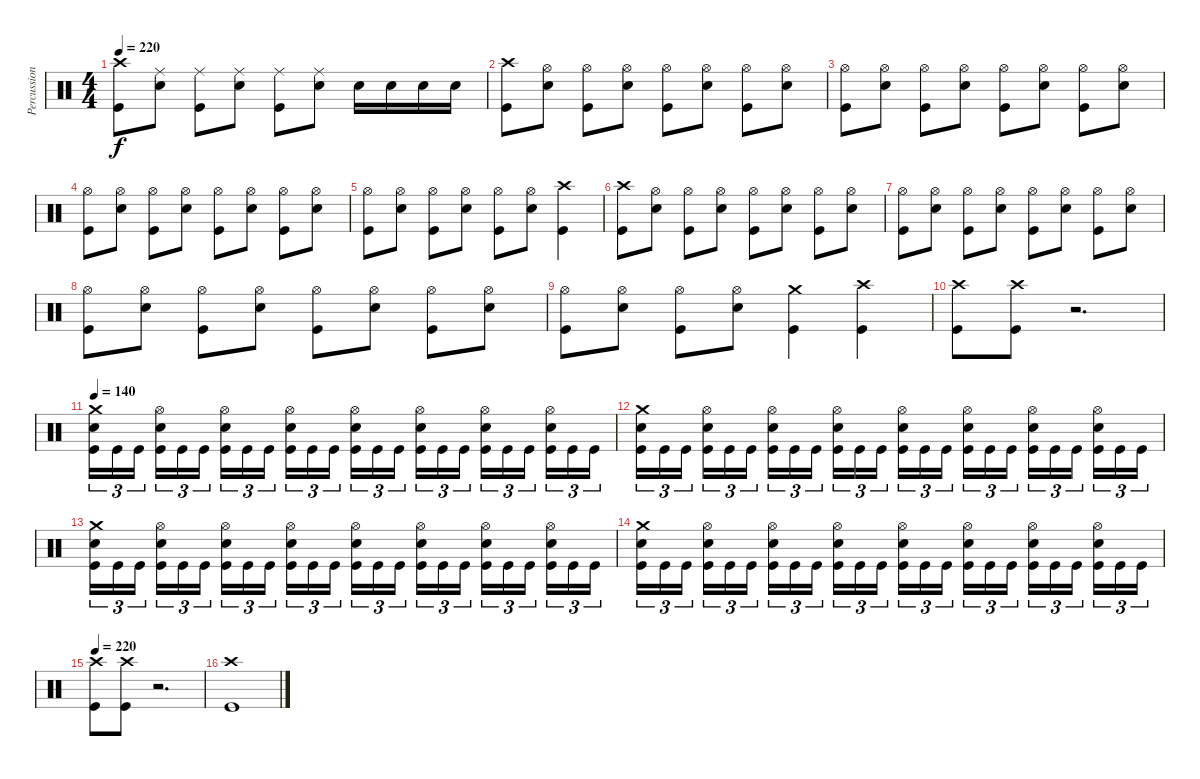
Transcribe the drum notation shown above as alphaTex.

\track ("Percussion" "Percussion") {instrument percussion}
\staff {score}
\articulation defaults
\ts (4 4)
\tempo 220
\clef neutral
\ks c
("Crash high (hit)" "Kick (hit)").8{dy f} ("Ride (middle)" "Snare (hit) 2").8 ("Ride (middle)" "Kick (hit)").8 ("Ride (middle)" "Snare (hit) 2").8 ("Ride (middle)" "Kick (hit)").8 ("Ride (middle)" "Snare (hit) 2").8 "Snare (hit) 2".16 "Snare (hit) 2".16 "Snare (hit) 2".16 "Snare (hit) 2".16 |
("Crash high (hit)" "Kick (hit)").8 ("Hi-Hat (open)" "Snare (hit) 2").8 ("Hi-Hat (open)" "Kick (hit)").8 ("Hi-Hat (open)" "Snare (hit) 2").8 ("Hi-Hat (open)" "Kick (hit)").8 ("Hi-Hat (open)" "Snare (hit) 2").8 ("Hi-Hat (open)" "Kick (hit)").8 ("Hi-Hat (open)" "Snare (hit) 2").8 |
("Hi-Hat (open)" "Kick (hit)").8 ("Hi-Hat (open)" "Snare (hit) 2").8 ("Hi-Hat (open)" "Kick (hit)").8 ("Hi-Hat (open)" "Snare (hit) 2").8 ("Hi-Hat (open)" "Kick (hit)").8 ("Hi-Hat (open)" "Snare (hit) 2").8 ("Hi-Hat (open)" "Kick (hit)").8 ("Hi-Hat (open)" "Snare (hit) 2").8 |
("Hi-Hat (open)" "Kick (hit)").8 ("Hi-Hat (open)" "Snare (hit) 2").8 ("Hi-Hat (open)" "Kick (hit)").8 ("Hi-Hat (open)" "Snare (hit) 2").8 ("Hi-Hat (open)" "Kick (hit)").8 ("Hi-Hat (open)" "Snare (hit) 2").8 ("Hi-Hat (open)" "Kick (hit)").8 ("Hi-Hat (open)" "Snare (hit) 2").8 |
("Hi-Hat (open)" "Kick (hit)").8 ("Hi-Hat (open)" "Snare (hit) 2").8 ("Hi-Hat (open)" "Kick (hit)").8 ("Hi-Hat (open)" "Snare (hit) 2").8 ("Hi-Hat (open)" "Kick (hit)").8 ("Hi-Hat (open)" "Snare (hit) 2").8 ("Crash high (hit)" "Kick (hit)").4 |
("Crash high (hit)" "Kick (hit)").8 ("Hi-Hat (open)" "Snare (hit) 2").8 ("Hi-Hat (open)" "Kick (hit)").8 ("Hi-Hat (open)" "Snare (hit) 2").8 ("Hi-Hat (open)" "Kick (hit)").8 ("Hi-Hat (open)" "Snare (hit) 2").8 ("Hi-Hat (open)" "Kick (hit)").8 ("Hi-Hat (open)" "Snare (hit) 2").8 |
("Hi-Hat (open)" "Kick (hit)").8 ("Hi-Hat (open)" "Snare (hit) 2").8 ("Hi-Hat (open)" "Kick (hit)").8 ("Hi-Hat (open)" "Snare (hit) 2").8 ("Hi-Hat (open)" "Kick (hit)").8 ("Hi-Hat (open)" "Snare (hit) 2").8 ("Hi-Hat (open)" "Kick (hit)").8 ("Hi-Hat (open)" "Snare (hit) 2").8 |
("Hi-Hat (open)" "Kick (hit)").8 ("Hi-Hat (open)" "Snare (hit) 2").8 ("Hi-Hat (open)" "Kick (hit)").8 ("Hi-Hat (open)" "Snare (hit) 2").8 ("Hi-Hat (open)" "Kick (hit)").8 ("Hi-Hat (open)" "Snare (hit) 2").8 ("Hi-Hat (open)" "Kick (hit)").8 ("Hi-Hat (open)" "Snare (hit) 2").8 |
("Hi-Hat (open)" "Kick (hit)").8 ("Hi-Hat (open)" "Snare (hit) 2").8 ("Hi-Hat (open)" "Kick (hit)").8 ("Hi-Hat (open)" "Snare (hit) 2").8 ("Crash medium (hit)" "Kick (hit)").4 ("Crash high (hit)" "Kick (hit)").4 |
("Crash high (hit)" "Kick (hit)").8 ("Crash high (hit)" "Kick (hit)").8 r.2{d} |
\tempo 140
("Crash medium (hit)" "Snare (hit) 2" "Kick (hit)").16{tu (3 2)} "Kick (hit)".16{tu (3 2)} "Kick (hit)".16{tu (3 2)} ("Hi-Hat (open)" "Snare (hit) 2" "Kick (hit)").16{tu (3 2)} "Kick (hit)".16{tu (3 2)} "Kick (hit)".16{tu (3 2)} ("Hi-Hat (open)" "Snare (hit) 2" "Kick (hit)").16{tu (3 2)} "Kick (hit)".16{tu (3 2)} "Kick (hit)".16{tu (3 2)} ("Hi-Hat (open)" "Snare (hit) 2" "Kick (hit)").16{tu (3 2)} "Kick (hit)".16{tu (3 2)} "Kick (hit)".16{tu (3 2)} ("Hi-Hat (open)" "Snare (hit) 2" "Kick (hit)").16{tu (3 2)} "Kick (hit)".16{tu (3 2)} "Kick (hit)".16{tu (3 2)} ("Hi-Hat (open)" "Snare (hit) 2" "Kick (hit)").16{tu (3 2)} "Kick (hit)".16{tu (3 2)} "Kick (hit)".16{tu (3 2)} ("Hi-Hat (open)" "Snare (hit) 2" "Kick (hit)").16{tu (3 2)} "Kick (hit)".16{tu (3 2)} "Kick (hit)".16{tu (3 2)} ("Hi-Hat (open)" "Snare (hit) 2" "Kick (hit)").16{tu (3 2)} "Kick (hit)".16{tu (3 2)} "Kick (hit)".16{tu (3 2)} |
("Crash medium (hit)" "Snare (hit) 2" "Kick (hit)").16{tu (3 2)} "Kick (hit)".16{tu (3 2)} "Kick (hit)".16{tu (3 2)} ("Hi-Hat (open)" "Snare (hit) 2" "Kick (hit)").16{tu (3 2)} "Kick (hit)".16{tu (3 2)} "Kick (hit)".16{tu (3 2)} ("Hi-Hat (open)" "Snare (hit) 2" "Kick (hit)").16{tu (3 2)} "Kick (hit)".16{tu (3 2)} "Kick (hit)".16{tu (3 2)} ("Hi-Hat (open)" "Snare (hit) 2" "Kick (hit)").16{tu (3 2)} "Kick (hit)".16{tu (3 2)} "Kick (hit)".16{tu (3 2)} ("Hi-Hat (open)" "Snare (hit) 2" "Kick (hit)").16{tu (3 2)} "Kick (hit)".16{tu (3 2)} "Kick (hit)".16{tu (3 2)} ("Hi-Hat (open)" "Snare (hit) 2" "Kick (hit)").16{tu (3 2)} "Kick (hit)".16{tu (3 2)} "Kick (hit)".16{tu (3 2)} ("Hi-Hat (open)" "Snare (hit) 2" "Kick (hit)").16{tu (3 2)} "Kick (hit)".16{tu (3 2)} "Kick (hit)".16{tu (3 2)} ("Hi-Hat (open)" "Snare (hit) 2" "Kick (hit)").16{tu (3 2)} "Kick (hit)".16{tu (3 2)} "Kick (hit)".16{tu (3 2)} |
("Crash medium (hit)" "Snare (hit) 2" "Kick (hit)").16{tu (3 2)} "Kick (hit)".16{tu (3 2)} "Kick (hit)".16{tu (3 2)} ("Hi-Hat (open)" "Snare (hit) 2" "Kick (hit)").16{tu (3 2)} "Kick (hit)".16{tu (3 2)} "Kick (hit)".16{tu (3 2)} ("Hi-Hat (open)" "Snare (hit) 2" "Kick (hit)").16{tu (3 2)} "Kick (hit)".16{tu (3 2)} "Kick (hit)".16{tu (3 2)} ("Hi-Hat (open)" "Snare (hit) 2" "Kick (hit)").16{tu (3 2)} "Kick (hit)".16{tu (3 2)} "Kick (hit)".16{tu (3 2)} ("Hi-Hat (open)" "Snare (hit) 2" "Kick (hit)").16{tu (3 2)} "Kick (hit)".16{tu (3 2)} "Kick (hit)".16{tu (3 2)} ("Hi-Hat (open)" "Snare (hit) 2" "Kick (hit)").16{tu (3 2)} "Kick (hit)".16{tu (3 2)} "Kick (hit)".16{tu (3 2)} ("Hi-Hat (open)" "Snare (hit) 2" "Kick (hit)").16{tu (3 2)} "Kick (hit)".16{tu (3 2)} "Kick (hit)".16{tu (3 2)} ("Hi-Hat (open)" "Snare (hit) 2" "Kick (hit)").16{tu (3 2)} "Kick (hit)".16{tu (3 2)} "Kick (hit)".16{tu (3 2)} |
("Crash medium (hit)" "Snare (hit) 2" "Kick (hit)").16{tu (3 2)} "Kick (hit)".16{tu (3 2)} "Kick (hit)".16{tu (3 2)} ("Hi-Hat (open)" "Snare (hit) 2" "Kick (hit)").16{tu (3 2)} "Kick (hit)".16{tu (3 2)} "Kick (hit)".16{tu (3 2)} ("Hi-Hat (open)" "Snare (hit) 2" "Kick (hit)").16{tu (3 2)} "Kick (hit)".16{tu (3 2)} "Kick (hit)".16{tu (3 2)} ("Hi-Hat (open)" "Snare (hit) 2" "Kick (hit)").16{tu (3 2)} "Kick (hit)".16{tu (3 2)} "Kick (hit)".16{tu (3 2)} ("Hi-Hat (open)" "Snare (hit) 2" "Kick (hit)").16{tu (3 2)} "Kick (hit)".16{tu (3 2)} "Kick (hit)".16{tu (3 2)} ("Hi-Hat (open)" "Snare (hit) 2" "Kick (hit)").16{tu (3 2)} "Kick (hit)".16{tu (3 2)} "Kick (hit)".16{tu (3 2)} ("Hi-Hat (open)" "Snare (hit) 2" "Kick (hit)").16{tu (3 2)} "Kick (hit)".16{tu (3 2)} "Kick (hit)".16{tu (3 2)} ("Hi-Hat (open)" "Snare (hit) 2" "Kick (hit)").16{tu (3 2)} "Kick (hit)".16{tu (3 2)} "Kick (hit)".16{tu (3 2)} |
\tempo 220
("Crash high (hit)" "Kick (hit)").8 ("Crash high (hit)" "Kick (hit)").8 r.2{d} |
("Crash high (hit)" "Kick (hit)").1
